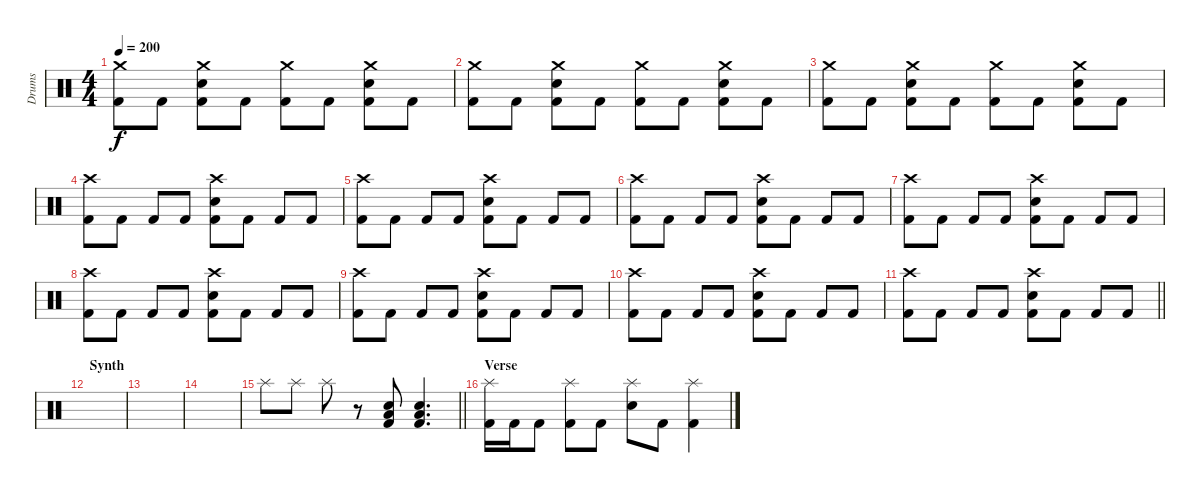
\track ("Drums" "Drums") {instrument percussion}
\staff {score}
\articulation defaults
\ts (4 4)
\tempo 200
\clef neutral
\ks c
("Crash medium (hit)" "Kick (hit) 2").8{dy f} "Kick (hit) 2".8 ("Crash medium (hit)" "Electric Snare (hit)" "Kick (hit) 2").8 "Kick (hit) 2".8 ("Crash medium (hit)" "Kick (hit) 2").8 "Kick (hit) 2".8 ("Crash medium (hit)" "Electric Snare (hit)" "Kick (hit) 2").8 "Kick (hit) 2".8 |
("Crash medium (hit)" "Kick (hit) 2").8 "Kick (hit) 2".8 ("Crash medium (hit)" "Electric Snare (hit)" "Kick (hit) 2").8 "Kick (hit) 2".8 ("Crash medium (hit)" "Kick (hit) 2").8 "Kick (hit) 2".8 ("Crash medium (hit)" "Electric Snare (hit)" "Kick (hit) 2").8 "Kick (hit) 2".8 |
("Crash medium (hit)" "Kick (hit) 2").8 "Kick (hit) 2".8 ("Crash medium (hit)" "Electric Snare (hit)" "Kick (hit) 2").8 "Kick (hit) 2".8 ("Crash medium (hit)" "Kick (hit) 2").8 "Kick (hit) 2".8 ("Crash medium (hit)" "Electric Snare (hit)" "Kick (hit) 2").8 "Kick (hit) 2".8 |
("Crash high (hit)" "Kick (hit) 2").8 "Kick (hit) 2".8 "Kick (hit) 2".8 "Kick (hit) 2".8 ("Crash high (hit)" "Electric Snare (hit)" "Kick (hit) 2").8 "Kick (hit) 2".8 "Kick (hit) 2".8 "Kick (hit) 2".8 |
("Crash high (hit)" "Kick (hit) 2").8 "Kick (hit) 2".8 "Kick (hit) 2".8 "Kick (hit) 2".8 ("Crash high (hit)" "Electric Snare (hit)" "Kick (hit) 2").8 "Kick (hit) 2".8 "Kick (hit) 2".8 "Kick (hit) 2".8 |
("Crash high (hit)" "Kick (hit) 2").8 "Kick (hit) 2".8 "Kick (hit) 2".8 "Kick (hit) 2".8 ("Crash high (hit)" "Electric Snare (hit)" "Kick (hit) 2").8 "Kick (hit) 2".8 "Kick (hit) 2".8 "Kick (hit) 2".8 |
("Crash high (hit)" "Kick (hit) 2").8 "Kick (hit) 2".8 "Kick (hit) 2".8 "Kick (hit) 2".8 ("Crash high (hit)" "Electric Snare (hit)" "Kick (hit) 2").8 "Kick (hit) 2".8 "Kick (hit) 2".8 "Kick (hit) 2".8 |
("Crash high (hit)" "Kick (hit) 2").8 "Kick (hit) 2".8 "Kick (hit) 2".8 "Kick (hit) 2".8 ("Crash high (hit)" "Electric Snare (hit)" "Kick (hit) 2").8 "Kick (hit) 2".8 "Kick (hit) 2".8 "Kick (hit) 2".8 |
("Crash high (hit)" "Kick (hit) 2").8 "Kick (hit) 2".8 "Kick (hit) 2".8 "Kick (hit) 2".8 ("Crash high (hit)" "Electric Snare (hit)" "Kick (hit) 2").8 "Kick (hit) 2".8 "Kick (hit) 2".8 "Kick (hit) 2".8 |
("Crash high (hit)" "Kick (hit) 2").8 "Kick (hit) 2".8 "Kick (hit) 2".8 "Kick (hit) 2".8 ("Crash high (hit)" "Electric Snare (hit)" "Kick (hit) 2").8 "Kick (hit) 2".8 "Kick (hit) 2".8 "Kick (hit) 2".8 |
\barLineRight lightlight
("Crash high (hit)" "Kick (hit) 2").8 "Kick (hit) 2".8 "Kick (hit) 2".8 "Kick (hit) 2".8 ("Crash high (hit)" "Electric Snare (hit)" "Kick (hit) 2").8 "Kick (hit) 2".8 "Kick (hit) 2".8 "Kick (hit) 2".8 |
\section ("" "Synth")
|
|
|
\barLineRight lightlight "Splash (hit)".8{volume 4} "Splash (hit)".8{volume 7} "Splash (hit)".8{volume 10}
r.8{volume 14} ("Low Floor Tom (hit)" "Electric Snare (hit)" "Kick (hit) 2").8 ("Low Floor Tom (hit)" "Electric Snare (hit)" "Kick (hit) 2").4{d} |
\section ("" "Verse")
("Splash (hit)" "Kick (hit) 2").16 "Kick (hit) 2".16 "Kick (hit) 2".8 ("Splash (hit)" "Kick (hit) 2").8 "Kick (hit) 2".8 ("Splash (hit)" "Electric Snare (hit)").8 "Kick (hit) 2".8 ("Splash (hit)" "Kick (hit) 2").4
